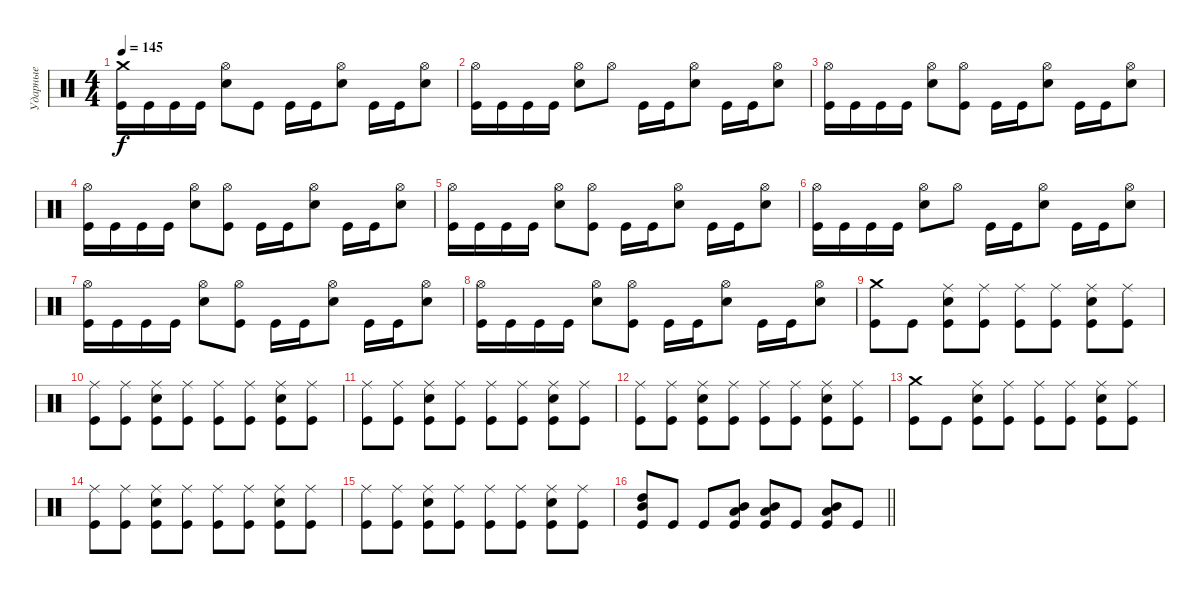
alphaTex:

\track ("Ударные" "Ударные") {instrument percussion}
\staff {score}
\articulation defaults
\ts (4 4)
\tempo 145
\clef neutral
\ks c
("Kick (hit)" "Crash medium (hit)").16{dy f} "Kick (hit)".16 "Kick (hit)".16 "Kick (hit)".16 ("Snare (hit) 2" "Hi-Hat (open)").8 "Kick (hit)".8 "Kick (hit)".16 "Kick (hit)".16 ("Snare (hit) 2" "Hi-Hat (open)").8 "Kick (hit)".16 "Kick (hit)".16 ("Snare (hit) 2" "Hi-Hat (open)").8 |
("Kick (hit)" "Hi-Hat (open)").16 "Kick (hit)".16 "Kick (hit)".16 "Kick (hit)".16 ("Snare (hit) 2" "Hi-Hat (open)").8 "Hi-Hat (open)".8 "Kick (hit)".16 "Kick (hit)".16 ("Snare (hit) 2" "Hi-Hat (open)").8 "Kick (hit)".16 "Kick (hit)".16 ("Snare (hit) 2" "Hi-Hat (open)").8 |
("Kick (hit)" "Hi-Hat (open)").16 "Kick (hit)".16 "Kick (hit)".16 "Kick (hit)".16 ("Snare (hit) 2" "Hi-Hat (open)").8 ("Kick (hit)" "Hi-Hat (open)").8 "Kick (hit)".16 "Kick (hit)".16 ("Snare (hit) 2" "Hi-Hat (open)").8 "Kick (hit)".16 "Kick (hit)".16 ("Snare (hit) 2" "Hi-Hat (open)").8 |
("Kick (hit)" "Hi-Hat (open)").16 "Kick (hit)".16 "Kick (hit)".16 "Kick (hit)".16 ("Snare (hit) 2" "Hi-Hat (open)").8 ("Kick (hit)" "Hi-Hat (open)").8 "Kick (hit)".16 "Kick (hit)".16 ("Snare (hit) 2" "Hi-Hat (open)").8 "Kick (hit)".16 "Kick (hit)".16 ("Snare (hit) 2" "Hi-Hat (open)").8 |
("Kick (hit)" "Hi-Hat (open)").16 "Kick (hit)".16 "Kick (hit)".16 "Kick (hit)".16 ("Snare (hit) 2" "Hi-Hat (open)").8 ("Kick (hit)" "Hi-Hat (open)").8 "Kick (hit)".16 "Kick (hit)".16 ("Snare (hit) 2" "Hi-Hat (open)").8 "Kick (hit)".16 "Kick (hit)".16 ("Snare (hit) 2" "Hi-Hat (open)").8 |
("Kick (hit)" "Hi-Hat (open)").16 "Kick (hit)".16 "Kick (hit)".16 "Kick (hit)".16 ("Snare (hit) 2" "Hi-Hat (open)").8 "Hi-Hat (open)".8 "Kick (hit)".16 "Kick (hit)".16 ("Snare (hit) 2" "Hi-Hat (open)").8 "Kick (hit)".16 "Kick (hit)".16 ("Snare (hit) 2" "Hi-Hat (open)").8 |
("Kick (hit)" "Hi-Hat (open)").16 "Kick (hit)".16 "Kick (hit)".16 "Kick (hit)".16 ("Snare (hit) 2" "Hi-Hat (open)").8 ("Kick (hit)" "Hi-Hat (open)").8 "Kick (hit)".16 "Kick (hit)".16 ("Snare (hit) 2" "Hi-Hat (open)").8 "Kick (hit)".16 "Kick (hit)".16 ("Snare (hit) 2" "Hi-Hat (open)").8 |
("Kick (hit)" "Hi-Hat (open)").16 "Kick (hit)".16 "Kick (hit)".16 "Kick (hit)".16 ("Snare (hit) 2" "Hi-Hat (open)").8 ("Kick (hit)" "Hi-Hat (open)").8 "Kick (hit)".16 "Kick (hit)".16 ("Snare (hit) 2" "Hi-Hat (open)").8 "Kick (hit)".16 "Kick (hit)".16 ("Snare (hit) 2" "Hi-Hat (open)").8 |
("Kick (hit)" "Crash medium (hit)").8 "Kick (hit)".8 ("Kick (hit)" "Snare (hit) 2" "Ride (middle)").8 ("Kick (hit)" "Ride (middle)").8 ("Kick (hit)" "Ride (middle)").8 ("Kick (hit)" "Ride (middle)").8 ("Kick (hit)" "Snare (hit) 2" "Ride (middle)").8 ("Kick (hit)" "Ride (middle)").8 |
("Kick (hit)" "Ride (middle)").8 ("Kick (hit)" "Ride (middle)").8 ("Kick (hit)" "Snare (hit) 2" "Ride (middle)").8 ("Kick (hit)" "Ride (middle)").8 ("Kick (hit)" "Ride (middle)").8 ("Kick (hit)" "Ride (middle)").8 ("Kick (hit)" "Snare (hit) 2" "Ride (middle)").8 ("Kick (hit)" "Ride (middle)").8 |
("Kick (hit)" "Ride (middle)").8 ("Kick (hit)" "Ride (middle)").8 ("Kick (hit)" "Snare (hit) 2" "Ride (middle)").8 ("Kick (hit)" "Ride (middle)").8 ("Kick (hit)" "Ride (middle)").8 ("Kick (hit)" "Ride (middle)").8 ("Kick (hit)" "Snare (hit) 2" "Ride (middle)").8 ("Kick (hit)" "Ride (middle)").8 |
("Kick (hit)" "Ride (middle)").8 ("Kick (hit)" "Ride (middle)").8 ("Kick (hit)" "Snare (hit) 2" "Ride (middle)").8 ("Kick (hit)" "Ride (middle)").8 ("Kick (hit)" "Ride (middle)").8 ("Kick (hit)" "Ride (middle)").8 ("Kick (hit)" "Snare (hit) 2" "Ride (middle)").8 ("Kick (hit)" "Ride (middle)").8 |
("Kick (hit)" "Crash medium (hit)").8 "Kick (hit)".8 ("Kick (hit)" "Snare (hit) 2" "Ride (middle)").8 ("Kick (hit)" "Ride (middle)").8 ("Kick (hit)" "Ride (middle)").8 ("Kick (hit)" "Ride (middle)").8 ("Kick (hit)" "Snare (hit) 2" "Ride (middle)").8 ("Kick (hit)" "Ride (middle)").8 |
("Kick (hit)" "Ride (middle)").8 ("Kick (hit)" "Ride (middle)").8 ("Kick (hit)" "Snare (hit) 2" "Ride (middle)").8 ("Kick (hit)" "Ride (middle)").8 ("Kick (hit)" "Ride (middle)").8 ("Kick (hit)" "Ride (middle)").8 ("Kick (hit)" "Snare (hit) 2" "Ride (middle)").8 ("Kick (hit)" "Ride (middle)").8 |
("Kick (hit)" "Ride (middle)").8 ("Kick (hit)" "Ride (middle)").8 ("Kick (hit)" "Snare (hit) 2" "Ride (middle)").8 ("Kick (hit)" "Ride (middle)").8 ("Kick (hit)" "Ride (middle)").8 ("Kick (hit)" "Ride (middle)").8 ("Kick (hit)" "Snare (hit) 2" "Ride (middle)").8 ("Kick (hit)" "Ride (middle)").8 |
\barLineRight lightlight
("Kick (hit)" "Mid Tom (hit)" "High Tom (hit)").8{bd 60} "Kick (hit)".8 "Kick (hit)".8 ("Kick (hit)" "Low Tom (hit)" "Mid Tom (hit)").8{bd 60} ("Kick (hit)" "Low Tom (hit)" "Mid Tom (hit)").8{bd 60} "Kick (hit)".8 ("Kick (hit)" "Low Tom (hit)" "Mid Tom (hit)").8{bd 60} "Kick (hit)".8
